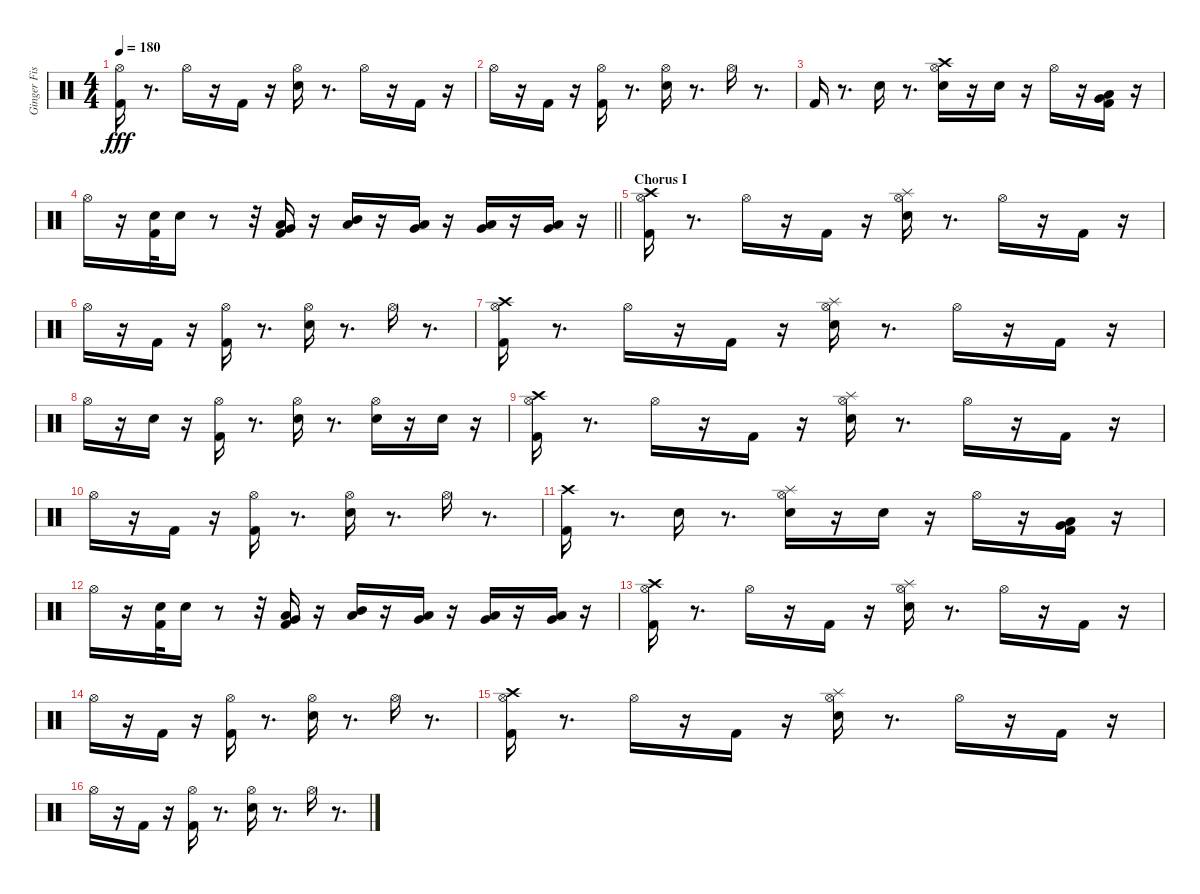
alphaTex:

\track ("Ginger Fish" "Ginger Fis") {instrument percussion}
\staff {score}
\articulation defaults
\ts (4 4)
\tempo 180
\clef neutral
\ks c
("Kick (hit) 2" "Hi-Hat (open)").16{dy fff} r.8{d} "Hi-Hat (open)".16 r.16 "Kick (hit) 2".16 r.16 ("Electric Snare (hit)" "Hi-Hat (open)").16 r.8{d} "Hi-Hat (open)".16 r.16 "Kick (hit) 2".16 r.16 |
"Hi-Hat (open)".16 r.16 "Kick (hit) 2".16 r.16 ("Hi-Hat (open)" "Kick (hit) 2").16 r.8{d} ("Hi-Hat (open)" "Electric Snare (hit)").16 r.8{d} "Hi-Hat (open)".16 r.8{d} |
"Kick (hit) 2".16 r.8{d} "Electric Snare (hit)".16 r.8{d} ("Crash high (hit)" "Hi-Hat (open)" "Electric Snare (hit)").16 r.16 "Electric Snare (hit)".16 r.16 "Hi-Hat (open)".16 r.16 ("Very Low Tom (hit)" "Low Floor Tom (hit)" "Kick (hit) 2").16 r.16 |
\barLineRight lightlight "Hi-Hat (open)".16
r.16 ("Electric Snare (hit)" "Kick (hit) 2").32 "Electric Snare (hit)".16 r.8 r.32 ("Low Tom (hit)" "Very Low Tom (hit)" "Kick (hit) 2").16 r.16 ("Mid Tom (hit)" "Low Tom (hit)").16 r.16 ("Low Tom (hit)" "Very Low Tom (hit)").16 r.16 ("Low Tom (hit)" "Very Low Tom (hit)").16 r.16 ("Very Low Tom (hit)" "Low Floor Tom (hit)").16 r.16 |
\section ("" "Chorus I")
("Crash high (hit)" "Kick (hit) 2" "Hi-Hat (open)").16 r.8{d} "Hi-Hat (open)".16 r.16 "Kick (hit) 2".16 r.16 ("Electric Snare (hit)" "Hi-Hat (open)" "Splash (hit)").16 r.8{d} "Hi-Hat (open)".16 r.16 "Kick (hit) 2".16 r.16 |
"Hi-Hat (open)".16 r.16 "Kick (hit) 2".16 r.16 ("Hi-Hat (open)" "Kick (hit) 2").16 r.8{d} ("Hi-Hat (open)" "Electric Snare (hit)").16 r.8{d} "Hi-Hat (open)".16 r.8{d} |
("Crash high (hit)" "Kick (hit) 2" "Hi-Hat (open)").16 r.8{d} "Hi-Hat (open)".16 r.16 "Kick (hit) 2".16 r.16 ("Splash (hit)" "Electric Snare (hit)" "Hi-Hat (open)").16 r.8{d} "Hi-Hat (open)".16 r.16 "Kick (hit) 2".16 r.16 |
"Hi-Hat (open)".16 r.16 "Electric Snare (hit)".16 r.16 ("Hi-Hat (open)" "Kick (hit) 2").16 r.8{d} ("Hi-Hat (open)" "Electric Snare (hit)").16 r.8{d} ("Hi-Hat (open)" "Electric Snare (hit)").16 r.16 "Electric Snare (hit)".16 r.16 |
("Crash high (hit)" "Kick (hit) 2" "Hi-Hat (open)").16 r.8{d} "Hi-Hat (open)".16 r.16 "Kick (hit) 2".16 r.16 ("Splash (hit)" "Electric Snare (hit)" "Hi-Hat (open)").16 r.8{d} "Hi-Hat (open)".16 r.16 "Kick (hit) 2".16 r.16 |
"Hi-Hat (open)".16 r.16 "Kick (hit) 2".16 r.16 ("Hi-Hat (open)" "Kick (hit) 2").16 r.8{d} ("Hi-Hat (open)" "Electric Snare (hit)").16 r.8{d} "Hi-Hat (open)".16 r.8{d} |
("Crash high (hit)" "Kick (hit) 2").16 r.8{d} "Electric Snare (hit)".16 r.8{d} ("Splash (hit)" "Hi-Hat (open)" "Electric Snare (hit)").16 r.16 "Electric Snare (hit)".16 r.16 "Hi-Hat (open)".16 r.16 ("Very Low Tom (hit)" "Low Floor Tom (hit)" "Kick (hit) 2").16 r.16 |
"Hi-Hat (open)".16 r.16 ("Electric Snare (hit)" "Kick (hit) 2").32 "Electric Snare (hit)".16 r.8 r.32 ("Low Tom (hit)" "Very Low Tom (hit)" "Kick (hit) 2").16 r.16 ("Low Tom (hit)" "Mid Tom (hit)").16 r.16 ("Very Low Tom (hit)" "Low Tom (hit)").16 r.16 ("Low Tom (hit)" "Very Low Tom (hit)").16 r.16 ("Very Low Tom (hit)" "Low Floor Tom (hit)").16 r.16 |
("Crash high (hit)" "Kick (hit) 2" "Hi-Hat (open)").16 r.8{d} "Hi-Hat (open)".16 r.16 "Kick (hit) 2".16 r.16 ("Splash (hit)" "Electric Snare (hit)" "Hi-Hat (open)").16 r.8{d} "Hi-Hat (open)".16 r.16 "Kick (hit) 2".16 r.16 |
"Hi-Hat (open)".16 r.16 "Kick (hit) 2".16 r.16 ("Hi-Hat (open)" "Kick (hit) 2").16 r.8{d} ("Hi-Hat (open)" "Electric Snare (hit)").16 r.8{d} "Hi-Hat (open)".16 r.8{d} |
("Crash high (hit)" "Kick (hit) 2" "Hi-Hat (open)").16 r.8{d} "Hi-Hat (open)".16 r.16 "Kick (hit) 2".16 r.16 ("Splash (hit)" "Electric Snare (hit)" "Hi-Hat (open)").16 r.8{d} "Hi-Hat (open)".16 r.16 "Kick (hit) 2".16 r.16 |
"Hi-Hat (open)".16 r.16 "Kick (hit) 2".16 r.16 ("Hi-Hat (open)" "Kick (hit) 2").16 r.8{d} ("Hi-Hat (open)" "Electric Snare (hit)").16 r.8{d} "Hi-Hat (open)".16 r.8{d}
